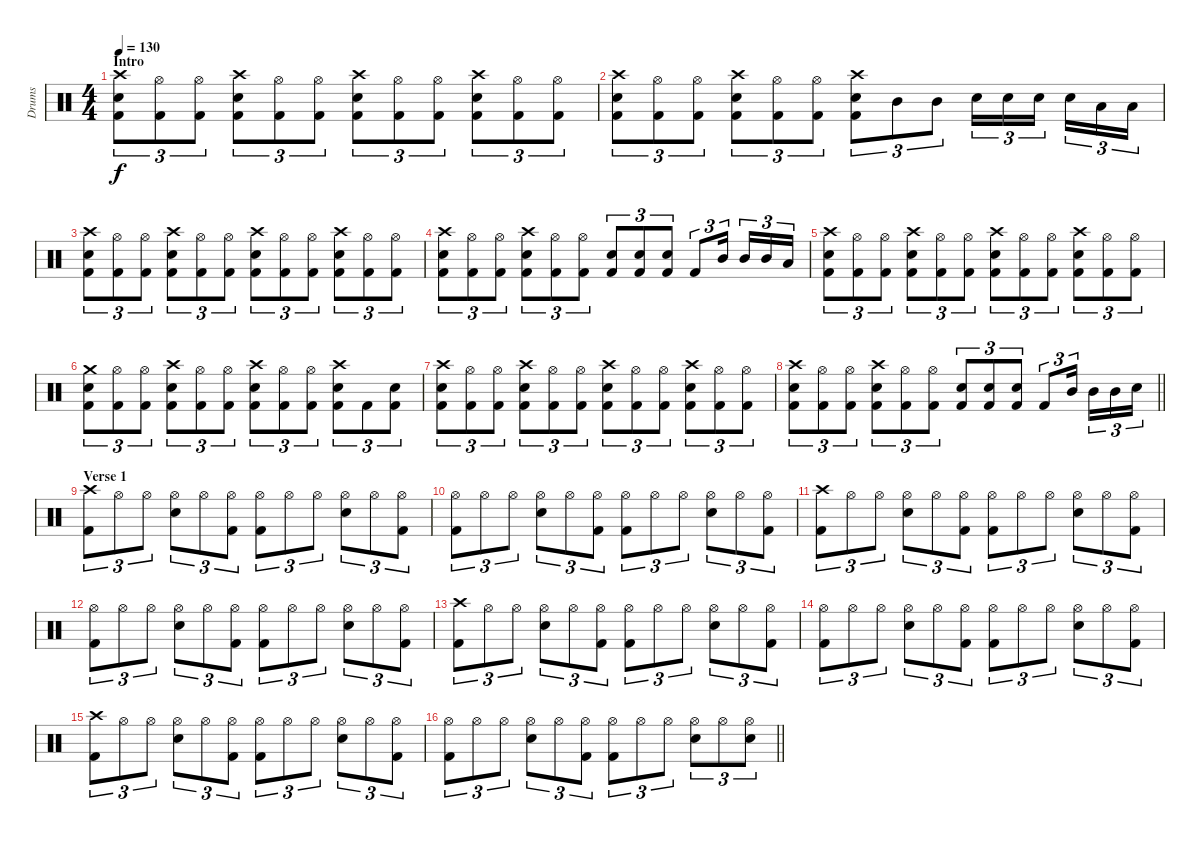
\track ("Drums" "Drums") {instrument percussion}
\staff {score}
\articulation defaults
\ts (4 4)
\section ("" "Intro")
\tempo 130
\clef neutral
\ks c
("Crash high (hit)" "Electric Snare (hit)" "Kick (hit) 2").8{tu (3 2) dy f} ("Hi-Hat (open)" "Kick (hit) 2").8{tu (3 2)} ("Hi-Hat (open)" "Kick (hit) 2").8{tu (3 2)} ("Crash high (hit)" "Electric Snare (hit)" "Kick (hit) 2").8{tu (3 2)} ("Hi-Hat (open)" "Kick (hit) 2").8{tu (3 2)} ("Hi-Hat (open)" "Kick (hit) 2").8{tu (3 2)} ("Crash high (hit)" "Electric Snare (hit)" "Kick (hit) 2").8{tu (3 2)} ("Hi-Hat (open)" "Kick (hit) 2").8{tu (3 2)} ("Hi-Hat (open)" "Kick (hit) 2").8{tu (3 2)} ("Crash high (hit)" "Electric Snare (hit)" "Kick (hit) 2").8{tu (3 2)} ("Hi-Hat (open)" "Kick (hit) 2").8{tu (3 2)} ("Hi-Hat (open)" "Kick (hit) 2").8{tu (3 2)} |
("Crash high (hit)" "Electric Snare (hit)" "Kick (hit) 2").8{tu (3 2)} ("Hi-Hat (open)" "Kick (hit) 2").8{tu (3 2)} ("Hi-Hat (open)" "Kick (hit) 2").8{tu (3 2)} ("Crash high (hit)" "Electric Snare (hit)" "Kick (hit) 2").8{tu (3 2)} ("Hi-Hat (open)" "Kick (hit) 2").8{tu (3 2)} ("Hi-Hat (open)" "Kick (hit) 2").8{tu (3 2)} ("Crash high (hit)" "Electric Snare (hit)" "Kick (hit) 2").8{tu (3 2)} "Mid Tom (hit)".8{tu (3 2)} "Mid Tom (hit)".8{tu (3 2)} "Electric Snare (hit)".16{tu (3 2)} "Electric Snare (hit)".16{tu (3 2)} "Electric Snare (hit)".16{tu (3 2) beam splitsecondary} "Electric Snare (hit)".16{tu (3 2)} "Low Tom (hit)".16{tu (3 2)} "Low Tom (hit)".16{tu (3 2)} |
("Crash high (hit)" "Electric Snare (hit)" "Kick (hit) 2").8{tu (3 2)} ("Hi-Hat (open)" "Kick (hit) 2").8{tu (3 2)} ("Hi-Hat (open)" "Kick (hit) 2").8{tu (3 2)} ("Crash high (hit)" "Electric Snare (hit)" "Kick (hit) 2").8{tu (3 2)} ("Hi-Hat (open)" "Kick (hit) 2").8{tu (3 2)} ("Hi-Hat (open)" "Kick (hit) 2").8{tu (3 2)} ("Crash high (hit)" "Electric Snare (hit)" "Kick (hit) 2").8{tu (3 2)} ("Hi-Hat (open)" "Kick (hit) 2").8{tu (3 2)} ("Hi-Hat (open)" "Kick (hit) 2").8{tu (3 2)} ("Crash high (hit)" "Electric Snare (hit)" "Kick (hit) 2").8{tu (3 2)} ("Hi-Hat (open)" "Kick (hit) 2").8{tu (3 2)} ("Hi-Hat (open)" "Kick (hit) 2").8{tu (3 2)} |
("Crash high (hit)" "Electric Snare (hit)" "Kick (hit) 2").8{tu (3 2)} ("Hi-Hat (open)" "Kick (hit) 2").8{tu (3 2)} ("Hi-Hat (open)" "Kick (hit) 2").8{tu (3 2)} ("Crash high (hit)" "Electric Snare (hit)" "Kick (hit) 2").8{tu (3 2)} ("Hi-Hat (open)" "Kick (hit) 2").8{tu (3 2)} ("Hi-Hat (open)" "Kick (hit) 2").8{tu (3 2)} ("Electric Snare (hit)" "Kick (hit) 2").8{tu (3 2)} ("Electric Snare (hit)" "Kick (hit) 2").8{tu (3 2)} ("Electric Snare (hit)" "Kick (hit) 2").8{tu (3 2)} "Kick (hit) 2".8{tu (3 2)} "Mid Tom (hit)".16{tu (3 2) beam splitsecondary} "Mid Tom (hit)".16{tu (3 2)} "Mid Tom (hit)".16{tu (3 2)} "Low Tom (hit)".16{tu (3 2)} |
("Crash high (hit)" "Electric Snare (hit)" "Kick (hit) 2").8{tu (3 2)} ("Hi-Hat (open)" "Kick (hit) 2").8{tu (3 2)} ("Hi-Hat (open)" "Kick (hit) 2").8{tu (3 2)} ("Crash high (hit)" "Electric Snare (hit)" "Kick (hit) 2").8{tu (3 2)} ("Hi-Hat (open)" "Kick (hit) 2").8{tu (3 2)} ("Hi-Hat (open)" "Kick (hit) 2").8{tu (3 2)} ("Crash high (hit)" "Electric Snare (hit)" "Kick (hit) 2").8{tu (3 2)} ("Hi-Hat (open)" "Kick (hit) 2").8{tu (3 2)} ("Hi-Hat (open)" "Kick (hit) 2").8{tu (3 2)} ("Crash high (hit)" "Electric Snare (hit)" "Kick (hit) 2").8{tu (3 2)} ("Hi-Hat (open)" "Kick (hit) 2").8{tu (3 2)} ("Hi-Hat (open)" "Kick (hit) 2").8{tu (3 2)} |
("Crash medium (hit)" "Electric Snare (hit)" "Kick (hit) 2").8{tu (3 2)} ("Hi-Hat (open)" "Kick (hit) 2").8{tu (3 2)} ("Hi-Hat (open)" "Kick (hit) 2").8{tu (3 2)} ("Crash high (hit)" "Electric Snare (hit)" "Kick (hit) 2").8{tu (3 2)} ("Hi-Hat (open)" "Kick (hit) 2").8{tu (3 2)} ("Hi-Hat (open)" "Kick (hit) 2").8{tu (3 2)} ("Crash high (hit)" "Electric Snare (hit)" "Kick (hit) 2").8{tu (3 2)} ("Hi-Hat (open)" "Kick (hit) 2").8{tu (3 2)} ("Hi-Hat (open)" "Kick (hit) 2").8{tu (3 2)} ("Crash high (hit)" "Electric Snare (hit)" "Kick (hit) 2").8{tu (3 2)} "Kick (hit) 2".8{tu (3 2)} ("Electric Snare (hit)" "Kick (hit) 2").8{tu (3 2)} |
("Crash high (hit)" "Electric Snare (hit)" "Kick (hit) 2").8{tu (3 2)} ("Hi-Hat (open)" "Kick (hit) 2").8{tu (3 2)} ("Hi-Hat (open)" "Kick (hit) 2").8{tu (3 2)} ("Crash high (hit)" "Electric Snare (hit)" "Kick (hit) 2").8{tu (3 2)} ("Hi-Hat (open)" "Kick (hit) 2").8{tu (3 2)} ("Hi-Hat (open)" "Kick (hit) 2").8{tu (3 2)} ("Crash high (hit)" "Electric Snare (hit)" "Kick (hit) 2").8{tu (3 2)} ("Hi-Hat (open)" "Kick (hit) 2").8{tu (3 2)} ("Hi-Hat (open)" "Kick (hit) 2").8{tu (3 2)} ("Crash high (hit)" "Electric Snare (hit)" "Kick (hit) 2").8{tu (3 2)} ("Hi-Hat (open)" "Kick (hit) 2").8{tu (3 2)} ("Hi-Hat (open)" "Kick (hit) 2").8{tu (3 2)} |
\barLineRight lightlight
("Crash high (hit)" "Electric Snare (hit)" "Kick (hit) 2").8{tu (3 2)} ("Hi-Hat (open)" "Kick (hit) 2").8{tu (3 2)} ("Hi-Hat (open)" "Kick (hit) 2").8{tu (3 2)} ("Crash high (hit)" "Electric Snare (hit)" "Kick (hit) 2").8{tu (3 2)} ("Hi-Hat (open)" "Kick (hit) 2").8{tu (3 2)} ("Hi-Hat (open)" "Kick (hit) 2").8{tu (3 2)} ("Electric Snare (hit)" "Kick (hit) 2").8{tu (3 2)} ("Electric Snare (hit)" "Kick (hit) 2").8{tu (3 2)} ("Electric Snare (hit)" "Kick (hit) 2").8{tu (3 2)} "Kick (hit) 2".8{tu (3 2)} "Mid Tom (hit)".16{tu (3 2) beam splitsecondary} "Mid Tom (hit)".16{tu (3 2)} "Mid Tom (hit)".16{tu (3 2)} "Electric Snare (hit)".16{tu (3 2)} |
\section ("" "Verse 1")
("Crash high (hit)" "Kick (hit) 2").8{tu (3 2)} "Hi-Hat (open)".8{tu (3 2)} "Hi-Hat (open)".8{tu (3 2)} ("Hi-Hat (open)" "Electric Snare (hit)").8{tu (3 2)} "Hi-Hat (open)".8{tu (3 2)} ("Hi-Hat (open)" "Kick (hit) 2").8{tu (3 2)} ("Hi-Hat (open)" "Kick (hit) 2").8{tu (3 2)} "Hi-Hat (open)".8{tu (3 2)} "Hi-Hat (open)".8{tu (3 2)} ("Hi-Hat (open)" "Electric Snare (hit)").8{tu (3 2)} "Hi-Hat (open)".8{tu (3 2)} ("Hi-Hat (open)" "Kick (hit) 2").8{tu (3 2)} |
("Hi-Hat (open)" "Kick (hit) 2").8{tu (3 2)} "Hi-Hat (open)".8{tu (3 2)} "Hi-Hat (open)".8{tu (3 2)} ("Hi-Hat (open)" "Electric Snare (hit)").8{tu (3 2)} "Hi-Hat (open)".8{tu (3 2)} ("Hi-Hat (open)" "Kick (hit) 2").8{tu (3 2)} ("Hi-Hat (open)" "Kick (hit) 2").8{tu (3 2)} "Hi-Hat (open)".8{tu (3 2)} "Hi-Hat (open)".8{tu (3 2)} ("Hi-Hat (open)" "Electric Snare (hit)").8{tu (3 2)} "Hi-Hat (open)".8{tu (3 2)} ("Hi-Hat (open)" "Kick (hit) 2").8{tu (3 2)} |
("Crash high (hit)" "Kick (hit) 2").8{tu (3 2)} "Hi-Hat (open)".8{tu (3 2)} "Hi-Hat (open)".8{tu (3 2)} ("Hi-Hat (open)" "Electric Snare (hit)").8{tu (3 2)} "Hi-Hat (open)".8{tu (3 2)} ("Hi-Hat (open)" "Kick (hit) 2").8{tu (3 2)} ("Hi-Hat (open)" "Kick (hit) 2").8{tu (3 2)} "Hi-Hat (open)".8{tu (3 2)} "Hi-Hat (open)".8{tu (3 2)} ("Hi-Hat (open)" "Electric Snare (hit)").8{tu (3 2)} "Hi-Hat (open)".8{tu (3 2)} ("Hi-Hat (open)" "Kick (hit) 2").8{tu (3 2)} |
("Hi-Hat (open)" "Kick (hit) 2").8{tu (3 2)} "Hi-Hat (open)".8{tu (3 2)} "Hi-Hat (open)".8{tu (3 2)} ("Hi-Hat (open)" "Electric Snare (hit)").8{tu (3 2)} "Hi-Hat (open)".8{tu (3 2)} ("Hi-Hat (open)" "Kick (hit) 2").8{tu (3 2)} ("Hi-Hat (open)" "Kick (hit) 2").8{tu (3 2)} "Hi-Hat (open)".8{tu (3 2)} "Hi-Hat (open)".8{tu (3 2)} ("Hi-Hat (open)" "Electric Snare (hit)").8{tu (3 2)} "Hi-Hat (open)".8{tu (3 2)} ("Hi-Hat (open)" "Kick (hit) 2").8{tu (3 2)} |
("Crash high (hit)" "Kick (hit) 2").8{tu (3 2)} "Hi-Hat (open)".8{tu (3 2)} "Hi-Hat (open)".8{tu (3 2)} ("Hi-Hat (open)" "Electric Snare (hit)").8{tu (3 2)} "Hi-Hat (open)".8{tu (3 2)} ("Hi-Hat (open)" "Kick (hit) 2").8{tu (3 2)} ("Hi-Hat (open)" "Kick (hit) 2").8{tu (3 2)} "Hi-Hat (open)".8{tu (3 2)} "Hi-Hat (open)".8{tu (3 2)} ("Hi-Hat (open)" "Electric Snare (hit)").8{tu (3 2)} "Hi-Hat (open)".8{tu (3 2)} ("Hi-Hat (open)" "Kick (hit) 2").8{tu (3 2)} |
("Hi-Hat (open)" "Kick (hit) 2").8{tu (3 2)} "Hi-Hat (open)".8{tu (3 2)} "Hi-Hat (open)".8{tu (3 2)} ("Hi-Hat (open)" "Electric Snare (hit)").8{tu (3 2)} "Hi-Hat (open)".8{tu (3 2)} ("Hi-Hat (open)" "Kick (hit) 2").8{tu (3 2)} ("Hi-Hat (open)" "Kick (hit) 2").8{tu (3 2)} "Hi-Hat (open)".8{tu (3 2)} "Hi-Hat (open)".8{tu (3 2)} ("Hi-Hat (open)" "Electric Snare (hit)").8{tu (3 2)} "Hi-Hat (open)".8{tu (3 2)} ("Hi-Hat (open)" "Kick (hit) 2").8{tu (3 2)} |
("Crash high (hit)" "Kick (hit) 2").8{tu (3 2)} "Hi-Hat (open)".8{tu (3 2)} "Hi-Hat (open)".8{tu (3 2)} ("Hi-Hat (open)" "Electric Snare (hit)").8{tu (3 2)} "Hi-Hat (open)".8{tu (3 2)} ("Hi-Hat (open)" "Kick (hit) 2").8{tu (3 2)} ("Hi-Hat (open)" "Kick (hit) 2").8{tu (3 2)} "Hi-Hat (open)".8{tu (3 2)} "Hi-Hat (open)".8{tu (3 2)} ("Hi-Hat (open)" "Electric Snare (hit)").8{tu (3 2)} "Hi-Hat (open)".8{tu (3 2)} ("Hi-Hat (open)" "Kick (hit) 2").8{tu (3 2)} |
\barLineRight lightlight
("Hi-Hat (open)" "Kick (hit) 2").8{tu (3 2)} "Hi-Hat (open)".8{tu (3 2)} "Hi-Hat (open)".8{tu (3 2)} ("Hi-Hat (open)" "Electric Snare (hit)").8{tu (3 2)} "Hi-Hat (open)".8{tu (3 2)} ("Hi-Hat (open)" "Kick (hit) 2").8{tu (3 2)} ("Hi-Hat (open)" "Kick (hit) 2").8{tu (3 2)} "Hi-Hat (open)".8{tu (3 2)} "Hi-Hat (open)".8{tu (3 2)} ("Hi-Hat (open)" "Electric Snare (hit)").8{tu (3 2)} "Hi-Hat (open)".8{tu (3 2)} ("Hi-Hat (open)" "Electric Snare (hit)").8{tu (3 2)}
